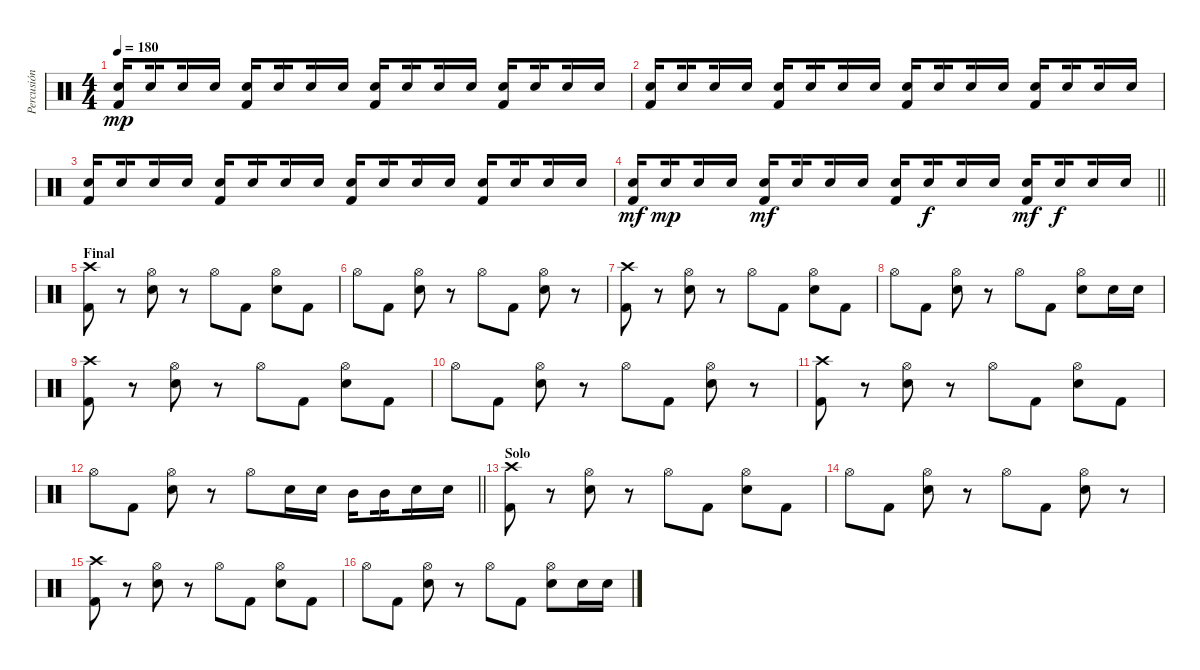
\track ("Percusión" "Percusión") {instrument percussion}
\staff {score}
\articulation defaults
\ts (4 4)
\tempo 180
\clef neutral
\ks c
("Electric Snare (hit)" "Kick (hit) 2").16{dy mp beam splitsecondary} "Electric Snare (hit)".16{beam splitsecondary} "Electric Snare (hit)".16 "Electric Snare (hit)".16 ("Electric Snare (hit)" "Kick (hit) 2").16{beam splitsecondary} "Electric Snare (hit)".16{beam splitsecondary} "Electric Snare (hit)".16 "Electric Snare (hit)".16 ("Electric Snare (hit)" "Kick (hit) 2").16{beam splitsecondary} "Electric Snare (hit)".16{beam splitsecondary} "Electric Snare (hit)".16 "Electric Snare (hit)".16 ("Electric Snare (hit)" "Kick (hit) 2").16{beam splitsecondary} "Electric Snare (hit)".16{beam splitsecondary} "Electric Snare (hit)".16 "Electric Snare (hit)".16 |
("Electric Snare (hit)" "Kick (hit) 2").16{beam splitsecondary} "Electric Snare (hit)".16{beam splitsecondary} "Electric Snare (hit)".16 "Electric Snare (hit)".16 ("Electric Snare (hit)" "Kick (hit) 2").16{beam splitsecondary} "Electric Snare (hit)".16{beam splitsecondary} "Electric Snare (hit)".16 "Electric Snare (hit)".16 ("Electric Snare (hit)" "Kick (hit) 2").16{beam splitsecondary} "Electric Snare (hit)".16{beam splitsecondary} "Electric Snare (hit)".16 "Electric Snare (hit)".16 ("Electric Snare (hit)" "Kick (hit) 2").16{beam splitsecondary} "Electric Snare (hit)".16{beam splitsecondary} "Electric Snare (hit)".16 "Electric Snare (hit)".16 |
("Electric Snare (hit)" "Kick (hit) 2").16{beam splitsecondary} "Electric Snare (hit)".16{beam splitsecondary} "Electric Snare (hit)".16 "Electric Snare (hit)".16 ("Electric Snare (hit)" "Kick (hit) 2").16{beam splitsecondary} "Electric Snare (hit)".16{beam splitsecondary} "Electric Snare (hit)".16 "Electric Snare (hit)".16 ("Electric Snare (hit)" "Kick (hit) 2").16{beam splitsecondary} "Electric Snare (hit)".16{beam splitsecondary} "Electric Snare (hit)".16 "Electric Snare (hit)".16 ("Electric Snare (hit)" "Kick (hit) 2").16{beam splitsecondary} "Electric Snare (hit)".16{beam splitsecondary} "Electric Snare (hit)".16 "Electric Snare (hit)".16 |
\barLineRight lightlight
("Electric Snare (hit)" "Kick (hit) 2").16{dy mf beam splitsecondary} "Electric Snare (hit)".16{dy mp beam splitsecondary} "Electric Snare (hit)".16 "Electric Snare (hit)".16 ("Electric Snare (hit)" "Kick (hit) 2").16{dy mf beam splitsecondary} "Electric Snare (hit)".16{beam splitsecondary} "Electric Snare (hit)".16 "Electric Snare (hit)".16 ("Electric Snare (hit)" "Kick (hit) 2").16{beam splitsecondary} "Electric Snare (hit)".16{dy f beam splitsecondary} "Electric Snare (hit)".16 "Electric Snare (hit)".16 ("Electric Snare (hit)" "Kick (hit) 2").16{dy mf beam splitsecondary} "Electric Snare (hit)".16{dy f beam splitsecondary} "Electric Snare (hit)".16 "Electric Snare (hit)".16 |
\section ("" "Final")
("Crash high (hit)" "Kick (hit) 2").8 r.8 ("Hi-Hat (open)" "Electric Snare (hit)").8 r.8 "Hi-Hat (open)".8 "Kick (hit) 2".8 ("Hi-Hat (open)" "Electric Snare (hit)").8 "Kick (hit) 2".8 |
"Hi-Hat (open)".8 "Kick (hit) 2".8 ("Hi-Hat (open)" "Electric Snare (hit)").8 r.8 "Hi-Hat (open)".8 "Kick (hit) 2".8 ("Hi-Hat (open)" "Electric Snare (hit)").8 r.8 |
("Crash high (hit)" "Kick (hit) 2").8 r.8 ("Hi-Hat (open)" "Electric Snare (hit)").8 r.8 "Hi-Hat (open)".8 "Kick (hit) 2".8 ("Hi-Hat (open)" "Electric Snare (hit)").8 "Kick (hit) 2".8 |
"Hi-Hat (open)".8 "Kick (hit) 2".8 ("Hi-Hat (open)" "Electric Snare (hit)").8 r.8 "Hi-Hat (open)".8 "Kick (hit) 2".8 ("Hi-Hat (open)" "Electric Snare (hit)").8 "Electric Snare (hit)".16 "Electric Snare (hit)".16 |
("Crash high (hit)" "Kick (hit) 2").8 r.8 ("Hi-Hat (open)" "Electric Snare (hit)").8 r.8 "Hi-Hat (open)".8 "Kick (hit) 2".8 ("Hi-Hat (open)" "Electric Snare (hit)").8 "Kick (hit) 2".8 |
"Hi-Hat (open)".8 "Kick (hit) 2".8 ("Hi-Hat (open)" "Electric Snare (hit)").8 r.8 "Hi-Hat (open)".8 "Kick (hit) 2".8 ("Hi-Hat (open)" "Electric Snare (hit)").8 r.8 |
("Crash high (hit)" "Kick (hit) 2").8 r.8 ("Hi-Hat (open)" "Electric Snare (hit)").8 r.8 "Hi-Hat (open)".8 "Kick (hit) 2".8 ("Hi-Hat (open)" "Electric Snare (hit)").8 "Kick (hit) 2".8 |
\barLineRight lightlight "Hi-Hat (open)".8 "Kick (hit) 2".8
("Hi-Hat (open)" "Electric Snare (hit)").8 r.8 "Hi-Hat (open)".8 "Electric Snare (hit)".16 "Electric Snare (hit)".16 "Mid Tom (hit)".16{beam splitsecondary} "Mid Tom (hit)".16{beam splitsecondary} "Electric Snare (hit)".16 "Electric Snare (hit)".16 |
\section ("" "Solo")
("Crash high (hit)" "Kick (hit) 2").8 r.8 ("Hi-Hat (open)" "Electric Snare (hit)").8 r.8 "Hi-Hat (open)".8 "Kick (hit) 2".8 ("Hi-Hat (open)" "Electric Snare (hit)").8 "Kick (hit) 2".8 |
"Hi-Hat (open)".8 "Kick (hit) 2".8 ("Hi-Hat (open)" "Electric Snare (hit)").8 r.8 "Hi-Hat (open)".8 "Kick (hit) 2".8 ("Hi-Hat (open)" "Electric Snare (hit)").8 r.8 |
("Crash high (hit)" "Kick (hit) 2").8 r.8 ("Hi-Hat (open)" "Electric Snare (hit)").8 r.8 "Hi-Hat (open)".8 "Kick (hit) 2".8 ("Hi-Hat (open)" "Electric Snare (hit)").8 "Kick (hit) 2".8 |
"Hi-Hat (open)".8 "Kick (hit) 2".8 ("Hi-Hat (open)" "Electric Snare (hit)").8 r.8 "Hi-Hat (open)".8 "Kick (hit) 2".8 ("Hi-Hat (open)" "Electric Snare (hit)").8 "Electric Snare (hit)".16 "Electric Snare (hit)".16
